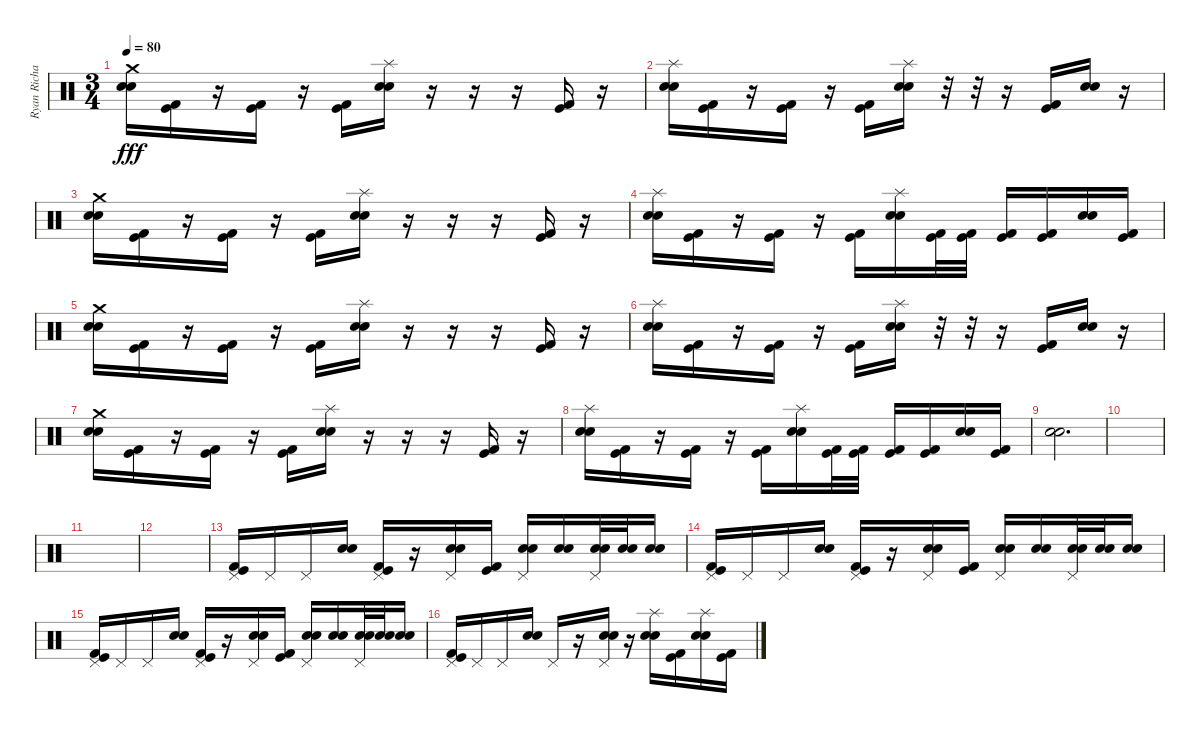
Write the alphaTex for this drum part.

\track ("Ryan Richards" "Ryan Richa") {instrument percussion}
\staff {score}
\articulation defaults
\ts (3 4)
\tempo 80
\clef neutral
\ks c
("Crash medium (hit)" "Snare (hit) 2" "Electric Snare (hit)").16{dy fff} ("Kick (hit)" "Kick (hit) 2").16 r.16 ("Kick (hit)" "Kick (hit) 2").16 r.16 ("Kick (hit)" "Kick (hit) 2").16 ("Splash (hit)" "Snare (hit) 2" "Electric Snare (hit)").16 r.16 r.16 r.16 ("Kick (hit)" "Kick (hit) 2").16 r.16 |
("Splash (hit)" "Snare (hit) 2" "Electric Snare (hit)").16 ("Kick (hit)" "Kick (hit) 2").16 r.16 ("Kick (hit)" "Kick (hit) 2").16 r.16 ("Kick (hit)" "Kick (hit) 2").16 ("Splash (hit)" "Snare (hit) 2" "Electric Snare (hit)").16 r.32 r.32 r.16 ("Kick (hit)" "Kick (hit) 2").16 ("Snare (hit) 2" "Electric Snare (hit)").16 r.16 |
("Crash medium (hit)" "Snare (hit) 2" "Electric Snare (hit)").16 ("Kick (hit)" "Kick (hit) 2").16 r.16 ("Kick (hit)" "Kick (hit) 2").16 r.16 ("Kick (hit)" "Kick (hit) 2").16 ("Splash (hit)" "Snare (hit) 2" "Electric Snare (hit)").16 r.16 r.16 r.16 ("Kick (hit)" "Kick (hit) 2").16 r.16 |
("Splash (hit)" "Snare (hit) 2" "Electric Snare (hit)").16 ("Kick (hit)" "Kick (hit) 2").16 r.16 ("Kick (hit)" "Kick (hit) 2").16 r.16 ("Kick (hit)" "Kick (hit) 2").16 ("Splash (hit)" "Snare (hit) 2" "Electric Snare (hit)").16 ("Kick (hit)" "Kick (hit) 2").32 ("Kick (hit)" "Kick (hit) 2").32 ("Kick (hit)" "Kick (hit) 2").16 ("Kick (hit)" "Kick (hit) 2").16 ("Snare (hit) 2" "Electric Snare (hit)").16 ("Kick (hit)" "Kick (hit) 2").16 |
("Crash medium (hit)" "Snare (hit) 2" "Electric Snare (hit)").16 ("Kick (hit)" "Kick (hit) 2").16 r.16 ("Kick (hit)" "Kick (hit) 2").16 r.16 ("Kick (hit)" "Kick (hit) 2").16 ("Splash (hit)" "Snare (hit) 2" "Electric Snare (hit)").16 r.16 r.16 r.16 ("Kick (hit)" "Kick (hit) 2").16 r.16 |
("Splash (hit)" "Snare (hit) 2" "Electric Snare (hit)").16 ("Kick (hit)" "Kick (hit) 2").16 r.16 ("Kick (hit)" "Kick (hit) 2").16 r.16 ("Kick (hit)" "Kick (hit) 2").16 ("Splash (hit)" "Snare (hit) 2" "Electric Snare (hit)").16 r.32 r.32 r.16 ("Kick (hit)" "Kick (hit) 2").16 ("Snare (hit) 2" "Electric Snare (hit)").16 r.16 |
("Crash medium (hit)" "Snare (hit) 2" "Electric Snare (hit)").16 ("Kick (hit)" "Kick (hit) 2").16 r.16 ("Kick (hit)" "Kick (hit) 2").16 r.16 ("Kick (hit)" "Kick (hit) 2").16 ("Splash (hit)" "Snare (hit) 2" "Electric Snare (hit)").16 r.16 r.16 r.16 ("Kick (hit)" "Kick (hit) 2").16 r.16 |
("Splash (hit)" "Snare (hit) 2" "Electric Snare (hit)").16 ("Kick (hit)" "Kick (hit) 2").16 r.16 ("Kick (hit)" "Kick (hit) 2").16 r.16 ("Kick (hit)" "Kick (hit) 2").16 ("Splash (hit)" "Snare (hit) 2" "Electric Snare (hit)").16 ("Kick (hit)" "Kick (hit) 2").32 ("Kick (hit)" "Kick (hit) 2").32 ("Kick (hit)" "Kick (hit) 2").16 ("Kick (hit)" "Kick (hit) 2").16 ("Snare (hit) 2" "Electric Snare (hit)").16 ("Kick (hit)" "Kick (hit) 2").16 |
("Snare (hit) 2" "Electric Snare (hit)").2{d} |
|
|
|
("Kick (hit)" "Pedal Hi-Hat (hit)" "Kick (hit) 2").16 "Pedal Hi-Hat (hit)".16 "Pedal Hi-Hat (hit)".16 ("Snare (hit) 2" "Electric Snare (hit)").16 ("Kick (hit)" "Pedal Hi-Hat (hit)" "Kick (hit) 2").16 r.16 ("Pedal Hi-Hat (hit)" "Snare (hit) 2" "Electric Snare (hit)").16 ("Kick (hit)" "Kick (hit) 2").16 ("Pedal Hi-Hat (hit)" "Snare (hit) 2" "Electric Snare (hit)").16 ("Snare (hit) 2" "Electric Snare (hit)").16 ("Pedal Hi-Hat (hit)" "Snare (hit) 2" "Electric Snare (hit)").32 ("Snare (hit) 2" "Electric Snare (hit)").32 ("Snare (hit) 2" "Electric Snare (hit)").16 |
("Kick (hit)" "Pedal Hi-Hat (hit)" "Kick (hit) 2").16 "Pedal Hi-Hat (hit)".16 "Pedal Hi-Hat (hit)".16 ("Snare (hit) 2" "Electric Snare (hit)").16 ("Kick (hit)" "Pedal Hi-Hat (hit)" "Kick (hit) 2").16 r.16 ("Pedal Hi-Hat (hit)" "Snare (hit) 2" "Electric Snare (hit)").16 ("Kick (hit)" "Kick (hit) 2").16 ("Pedal Hi-Hat (hit)" "Snare (hit) 2" "Electric Snare (hit)").16 ("Snare (hit) 2" "Electric Snare (hit)").16 ("Pedal Hi-Hat (hit)" "Snare (hit) 2" "Electric Snare (hit)").32 ("Snare (hit) 2" "Electric Snare (hit)").32 ("Snare (hit) 2" "Electric Snare (hit)").16 |
("Kick (hit)" "Pedal Hi-Hat (hit)" "Kick (hit) 2").16 "Pedal Hi-Hat (hit)".16 "Pedal Hi-Hat (hit)".16 ("Snare (hit) 2" "Electric Snare (hit)").16 ("Kick (hit)" "Pedal Hi-Hat (hit)" "Kick (hit) 2").16 r.16 ("Pedal Hi-Hat (hit)" "Snare (hit) 2" "Electric Snare (hit)").16 ("Kick (hit)" "Kick (hit) 2").16 ("Pedal Hi-Hat (hit)" "Snare (hit) 2" "Electric Snare (hit)").16 ("Snare (hit) 2" "Electric Snare (hit)").16 ("Pedal Hi-Hat (hit)" "Snare (hit) 2" "Electric Snare (hit)").32 ("Snare (hit) 2" "Electric Snare (hit)").32 ("Snare (hit) 2" "Electric Snare (hit)").16 |
("Kick (hit)" "Pedal Hi-Hat (hit)" "Kick (hit) 2").16 "Pedal Hi-Hat (hit)".16 "Pedal Hi-Hat (hit)".16 ("Snare (hit) 2" "Electric Snare (hit)").16 "Pedal Hi-Hat (hit)".16 r.16 ("Pedal Hi-Hat (hit)" "Snare (hit) 2" "Electric Snare (hit)").16 r.16 ("Splash (hit)" "Snare (hit) 2" "Electric Snare (hit)").16 ("Kick (hit)" "Kick (hit) 2").16 ("Splash (hit)" "Snare (hit) 2" "Electric Snare (hit)").16 ("Kick (hit)" "Kick (hit) 2").16
